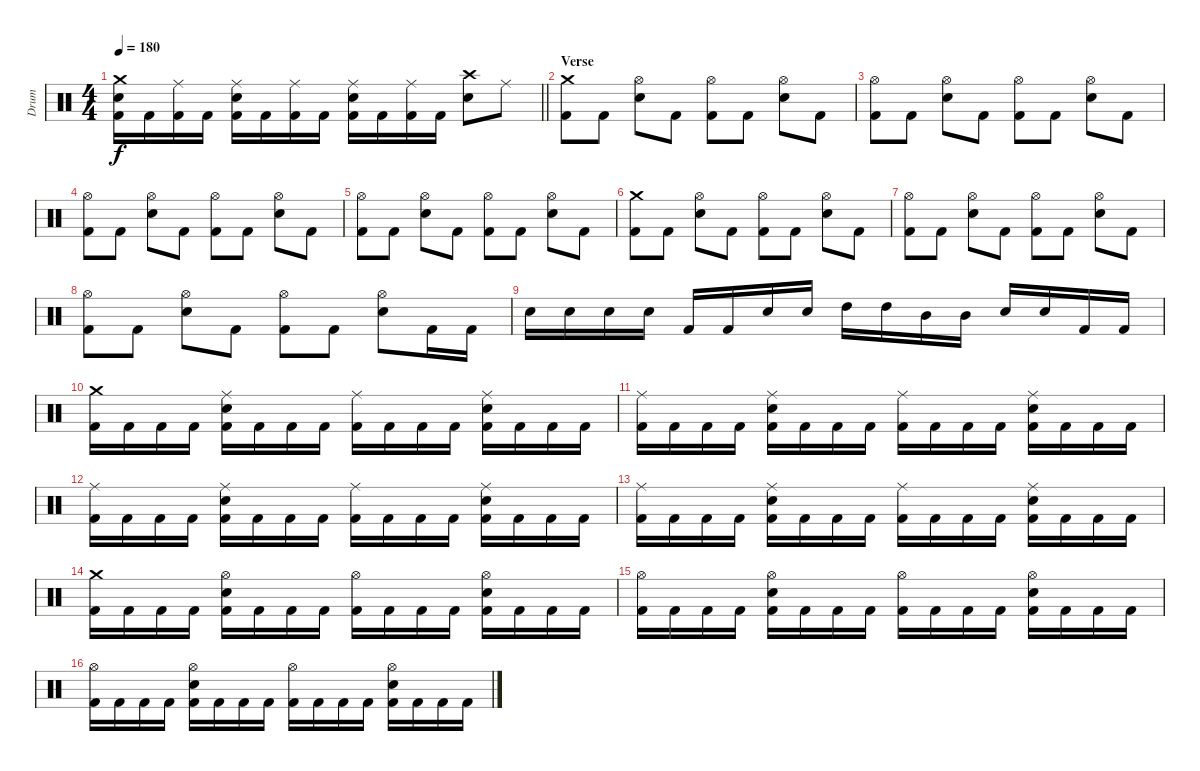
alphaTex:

\track ("Drum" "Drum") {instrument percussion}
\staff {score}
\articulation defaults
\ts (4 4)
\tempo 180
\clef neutral
\barLineRight lightlight
\ks c
("Crash medium (hit)" "Electric Snare (hit)" "Kick (hit) 2").16{dy f} "Kick (hit) 2".16 ("Ride (middle)" "Kick (hit) 2").16 "Kick (hit) 2".16 ("Ride (middle)" "Electric Snare (hit)" "Kick (hit) 2").16 "Kick (hit) 2".16 ("Ride (middle)" "Kick (hit) 2").16 "Kick (hit) 2".16 ("Ride (middle)" "Electric Snare (hit)" "Kick (hit) 2").16 "Kick (hit) 2".16 ("Ride (middle)" "Kick (hit) 2").16 "Kick (hit) 2".16 ("Crash high (hit)" "Electric Snare (hit)").8 "Ride (middle)".8 |
\section ("" "Verse")
("Crash medium (hit)" "Kick (hit) 2").8 "Kick (hit) 2".8 ("Hi-Hat (open)" "Electric Snare (hit)").8 "Kick (hit) 2".8 ("Hi-Hat (open)" "Kick (hit) 2").8 "Kick (hit) 2".8 ("Hi-Hat (open)" "Electric Snare (hit)").8 "Kick (hit) 2".8 |
("Hi-Hat (open)" "Kick (hit) 2").8 "Kick (hit) 2".8 ("Hi-Hat (open)" "Electric Snare (hit)").8 "Kick (hit) 2".8 ("Hi-Hat (open)" "Kick (hit) 2").8 "Kick (hit) 2".8 ("Hi-Hat (open)" "Electric Snare (hit)").8 "Kick (hit) 2".8 |
("Hi-Hat (open)" "Kick (hit) 2").8 "Kick (hit) 2".8 ("Hi-Hat (open)" "Electric Snare (hit)").8 "Kick (hit) 2".8 ("Hi-Hat (open)" "Kick (hit) 2").8 "Kick (hit) 2".8 ("Hi-Hat (open)" "Electric Snare (hit)").8 "Kick (hit) 2".8 |
("Hi-Hat (open)" "Kick (hit) 2").8 "Kick (hit) 2".8 ("Hi-Hat (open)" "Electric Snare (hit)").8 "Kick (hit) 2".8 ("Hi-Hat (open)" "Kick (hit) 2").8 "Kick (hit) 2".8 ("Hi-Hat (open)" "Electric Snare (hit)").8 "Kick (hit) 2".8 |
("Crash medium (hit)" "Kick (hit) 2").8 "Kick (hit) 2".8 ("Hi-Hat (open)" "Electric Snare (hit)").8 "Kick (hit) 2".8 ("Hi-Hat (open)" "Kick (hit) 2").8 "Kick (hit) 2".8 ("Hi-Hat (open)" "Electric Snare (hit)").8 "Kick (hit) 2".8 |
("Hi-Hat (open)" "Kick (hit) 2").8 "Kick (hit) 2".8 ("Hi-Hat (open)" "Electric Snare (hit)").8 "Kick (hit) 2".8 ("Hi-Hat (open)" "Kick (hit) 2").8 "Kick (hit) 2".8 ("Hi-Hat (open)" "Electric Snare (hit)").8 "Kick (hit) 2".8 |
("Hi-Hat (open)" "Kick (hit) 2").8 "Kick (hit) 2".8 ("Hi-Hat (open)" "Electric Snare (hit)").8 "Kick (hit) 2".8 ("Hi-Hat (open)" "Kick (hit) 2").8 "Kick (hit) 2".8 ("Hi-Hat (open)" "Electric Snare (hit)").8 "Kick (hit) 2".16 "Kick (hit) 2".16 |
"Electric Snare (hit)".16 "Electric Snare (hit)".16 "Electric Snare (hit)".16 "Electric Snare (hit)".16 "Kick (hit) 2".16 "Kick (hit) 2".16 "Electric Snare (hit)".16 "Electric Snare (hit)".16 "High Tom (hit)".16 "High Tom (hit)".16 "Mid Tom (hit)".16 "Mid Tom (hit)".16 "Electric Snare (hit)".16 "Electric Snare (hit)".16 "Kick (hit) 2".16 "Kick (hit) 2".16 |
("Crash medium (hit)" "Kick (hit) 2").16 "Kick (hit) 2".16 "Kick (hit) 2".16 "Kick (hit) 2".16 ("Ride (middle)" "Electric Snare (hit)" "Kick (hit) 2").16 "Kick (hit) 2".16 "Kick (hit) 2".16 "Kick (hit) 2".16 ("Ride (middle)" "Kick (hit) 2").16 "Kick (hit) 2".16 "Kick (hit) 2".16 "Kick (hit) 2".16 ("Ride (middle)" "Electric Snare (hit)" "Kick (hit) 2").16 "Kick (hit) 2".16 "Kick (hit) 2".16 "Kick (hit) 2".16 |
("Ride (middle)" "Kick (hit) 2").16 "Kick (hit) 2".16 "Kick (hit) 2".16 "Kick (hit) 2".16 ("Ride (middle)" "Electric Snare (hit)" "Kick (hit) 2").16 "Kick (hit) 2".16 "Kick (hit) 2".16 "Kick (hit) 2".16 ("Ride (middle)" "Kick (hit) 2").16 "Kick (hit) 2".16 "Kick (hit) 2".16 "Kick (hit) 2".16 ("Ride (middle)" "Electric Snare (hit)" "Kick (hit) 2").16 "Kick (hit) 2".16 "Kick (hit) 2".16 "Kick (hit) 2".16 |
("Ride (middle)" "Kick (hit) 2").16 "Kick (hit) 2".16 "Kick (hit) 2".16 "Kick (hit) 2".16 ("Ride (middle)" "Electric Snare (hit)" "Kick (hit) 2").16 "Kick (hit) 2".16 "Kick (hit) 2".16 "Kick (hit) 2".16 ("Ride (middle)" "Kick (hit) 2").16 "Kick (hit) 2".16 "Kick (hit) 2".16 "Kick (hit) 2".16 ("Ride (middle)" "Electric Snare (hit)" "Kick (hit) 2").16 "Kick (hit) 2".16 "Kick (hit) 2".16 "Kick (hit) 2".16 |
("Ride (middle)" "Kick (hit) 2").16 "Kick (hit) 2".16 "Kick (hit) 2".16 "Kick (hit) 2".16 ("Ride (middle)" "Electric Snare (hit)" "Kick (hit) 2").16 "Kick (hit) 2".16 "Kick (hit) 2".16 "Kick (hit) 2".16 ("Ride (middle)" "Kick (hit) 2").16 "Kick (hit) 2".16 "Kick (hit) 2".16 "Kick (hit) 2".16 ("Ride (middle)" "Electric Snare (hit)" "Kick (hit) 2").16 "Kick (hit) 2".16 "Kick (hit) 2".16 "Kick (hit) 2".16 |
("Crash medium (hit)" "Kick (hit) 2").16 "Kick (hit) 2".16 "Kick (hit) 2".16 "Kick (hit) 2".16 ("Hi-Hat (open)" "Electric Snare (hit)" "Kick (hit) 2").16 "Kick (hit) 2".16 "Kick (hit) 2".16 "Kick (hit) 2".16 ("Hi-Hat (open)" "Kick (hit) 2").16 "Kick (hit) 2".16 "Kick (hit) 2".16 "Kick (hit) 2".16 ("Hi-Hat (open)" "Electric Snare (hit)" "Kick (hit) 2").16 "Kick (hit) 2".16 "Kick (hit) 2".16 "Kick (hit) 2".16 |
("Hi-Hat (open)" "Kick (hit) 2").16 "Kick (hit) 2".16 "Kick (hit) 2".16 "Kick (hit) 2".16 ("Hi-Hat (open)" "Electric Snare (hit)" "Kick (hit) 2").16 "Kick (hit) 2".16 "Kick (hit) 2".16 "Kick (hit) 2".16 ("Hi-Hat (open)" "Kick (hit) 2").16 "Kick (hit) 2".16 "Kick (hit) 2".16 "Kick (hit) 2".16 ("Hi-Hat (open)" "Electric Snare (hit)" "Kick (hit) 2").16 "Kick (hit) 2".16 "Kick (hit) 2".16 "Kick (hit) 2".16 |
("Hi-Hat (open)" "Kick (hit) 2").16 "Kick (hit) 2".16 "Kick (hit) 2".16 "Kick (hit) 2".16 ("Hi-Hat (open)" "Electric Snare (hit)" "Kick (hit) 2").16 "Kick (hit) 2".16 "Kick (hit) 2".16 "Kick (hit) 2".16 ("Hi-Hat (open)" "Kick (hit) 2").16 "Kick (hit) 2".16 "Kick (hit) 2".16 "Kick (hit) 2".16 ("Hi-Hat (open)" "Electric Snare (hit)" "Kick (hit) 2").16 "Kick (hit) 2".16 "Kick (hit) 2".16 "Kick (hit) 2".16
